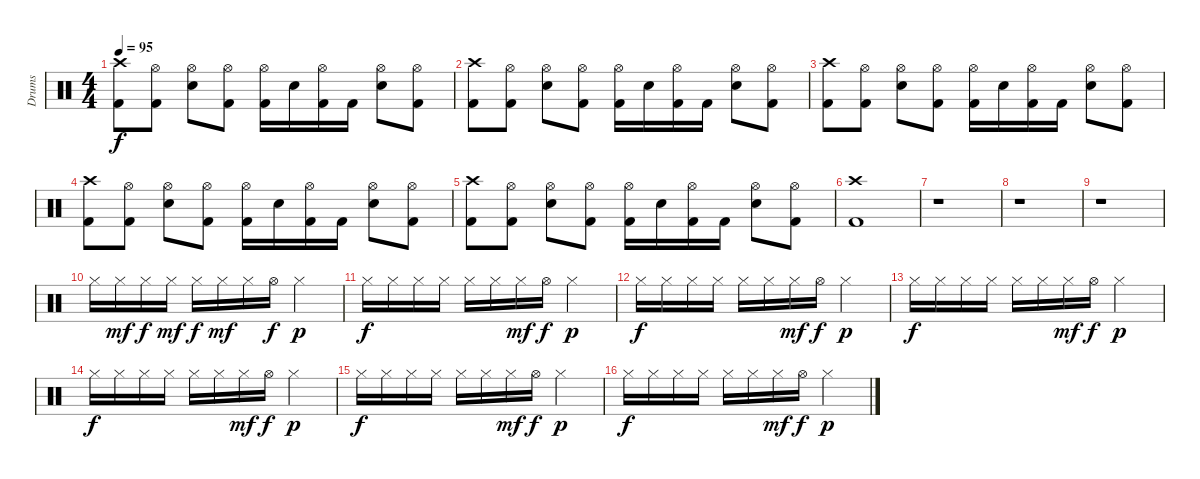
\track ("Drums" "Drums") {instrument percussion}
\staff {score}
\articulation defaults
\ts (4 4)
\tempo 95
\clef neutral
\ks c
("Crash high (hit)" "Kick (hit) 2").8{dy f} ("Hi-Hat (open)" "Kick (hit) 2").8 ("Hi-Hat (open)" "Electric Snare (hit)").8 ("Hi-Hat (open)" "Kick (hit) 2").8 ("Hi-Hat (open)" "Kick (hit) 2").16 "Electric Snare (hit)".16 ("Hi-Hat (open)" "Kick (hit) 2").16 "Kick (hit) 2".16 ("Hi-Hat (open)" "Electric Snare (hit)").8 ("Hi-Hat (open)" "Kick (hit) 2").8 |
("Crash high (hit)" "Kick (hit) 2").8 ("Hi-Hat (open)" "Kick (hit) 2").8 ("Hi-Hat (open)" "Electric Snare (hit)").8 ("Hi-Hat (open)" "Kick (hit) 2").8 ("Hi-Hat (open)" "Kick (hit) 2").16 "Electric Snare (hit)".16 ("Hi-Hat (open)" "Kick (hit) 2").16 "Kick (hit) 2".16 ("Hi-Hat (open)" "Electric Snare (hit)").8 ("Hi-Hat (open)" "Kick (hit) 2").8 |
("Crash high (hit)" "Kick (hit) 2").8 ("Hi-Hat (open)" "Kick (hit) 2").8 ("Hi-Hat (open)" "Electric Snare (hit)").8 ("Hi-Hat (open)" "Kick (hit) 2").8 ("Hi-Hat (open)" "Kick (hit) 2").16 "Electric Snare (hit)".16 ("Hi-Hat (open)" "Kick (hit) 2").16 "Kick (hit) 2".16 ("Hi-Hat (open)" "Electric Snare (hit)").8 ("Hi-Hat (open)" "Kick (hit) 2").8 |
("Crash high (hit)" "Kick (hit) 2").8 ("Hi-Hat (open)" "Kick (hit) 2").8 ("Hi-Hat (open)" "Electric Snare (hit)").8 ("Hi-Hat (open)" "Kick (hit) 2").8 ("Hi-Hat (open)" "Kick (hit) 2").16 "Electric Snare (hit)".16 ("Hi-Hat (open)" "Kick (hit) 2").16 "Kick (hit) 2".16 ("Hi-Hat (open)" "Electric Snare (hit)").8 ("Hi-Hat (open)" "Kick (hit) 2").8 |
("Crash high (hit)" "Kick (hit) 2").8 ("Hi-Hat (open)" "Kick (hit) 2").8 ("Hi-Hat (open)" "Electric Snare (hit)").8 ("Hi-Hat (open)" "Kick (hit) 2").8 ("Hi-Hat (open)" "Kick (hit) 2").16 "Electric Snare (hit)".16 ("Hi-Hat (open)" "Kick (hit) 2").16 "Kick (hit) 2".16 ("Hi-Hat (open)" "Electric Snare (hit)").8 ("Hi-Hat (open)" "Kick (hit) 2").8 |
("Crash high (hit)" "Kick (hit) 2").1 |
r.1 |
r.1 |
r.1 |
"Hi-Hat (closed)".16 "Hi-Hat (closed)".16{dy mf} "Hi-Hat (closed)".16{dy f} "Hi-Hat (closed)".16{dy mf} "Hi-Hat (closed)".16{dy f} "Hi-Hat (closed)".16{dy mf} "Hi-Hat (closed)".16 "Hi-Hat (open)".16{dy f} "Hi-Hat (closed)".2{dy p} |
"Hi-Hat (closed)".16{dy f} "Hi-Hat (closed)".16 "Hi-Hat (closed)".16 "Hi-Hat (closed)".16 "Hi-Hat (closed)".16 "Hi-Hat (closed)".16 "Hi-Hat (closed)".16{dy mf} "Hi-Hat (open)".16{dy f} "Hi-Hat (closed)".2{dy p} |
"Hi-Hat (closed)".16{dy f} "Hi-Hat (closed)".16 "Hi-Hat (closed)".16 "Hi-Hat (closed)".16 "Hi-Hat (closed)".16 "Hi-Hat (closed)".16 "Hi-Hat (closed)".16{dy mf} "Hi-Hat (open)".16{dy f} "Hi-Hat (closed)".2{dy p} |
"Hi-Hat (closed)".16{dy f} "Hi-Hat (closed)".16 "Hi-Hat (closed)".16 "Hi-Hat (closed)".16 "Hi-Hat (closed)".16 "Hi-Hat (closed)".16 "Hi-Hat (closed)".16{dy mf} "Hi-Hat (open)".16{dy f} "Hi-Hat (closed)".2{dy p} |
"Hi-Hat (closed)".16{dy f} "Hi-Hat (closed)".16 "Hi-Hat (closed)".16 "Hi-Hat (closed)".16 "Hi-Hat (closed)".16 "Hi-Hat (closed)".16 "Hi-Hat (closed)".16{dy mf} "Hi-Hat (open)".16{dy f} "Hi-Hat (closed)".2{dy p} |
"Hi-Hat (closed)".16{dy f} "Hi-Hat (closed)".16 "Hi-Hat (closed)".16 "Hi-Hat (closed)".16 "Hi-Hat (closed)".16 "Hi-Hat (closed)".16 "Hi-Hat (closed)".16{dy mf} "Hi-Hat (open)".16{dy f} "Hi-Hat (closed)".2{dy p} |
"Hi-Hat (closed)".16{dy f} "Hi-Hat (closed)".16 "Hi-Hat (closed)".16 "Hi-Hat (closed)".16 "Hi-Hat (closed)".16 "Hi-Hat (closed)".16 "Hi-Hat (closed)".16{dy mf} "Hi-Hat (open)".16{dy f} "Hi-Hat (closed)".2{dy p}
